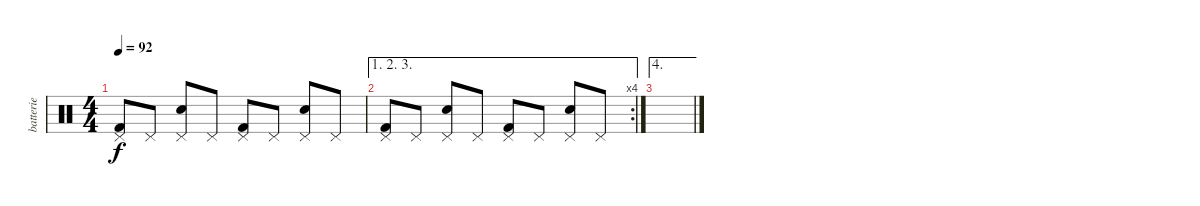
\track ("batterie" "batterie") {instrument percussion}
\staff {score}
\articulation defaults
\ts (4 4)
\tempo 92
\clef neutral
\ks c
("Pedal Hi-Hat (hit)" "Kick (hit) 2").8{dy f} "Pedal Hi-Hat (hit)".8 ("Pedal Hi-Hat (hit)" "Snare (hit) 2").8 "Pedal Hi-Hat (hit)".8 ("Pedal Hi-Hat (hit)" "Kick (hit) 2").8 "Pedal Hi-Hat (hit)".8 ("Pedal Hi-Hat (hit)" "Snare (hit) 2").8 "Pedal Hi-Hat (hit)".8 |
\ae (1 2 3)
\rc 4
("Pedal Hi-Hat (hit)" "Kick (hit) 2").8 "Pedal Hi-Hat (hit)".8 ("Pedal Hi-Hat (hit)" "Snare (hit) 2").8 "Pedal Hi-Hat (hit)".8 ("Pedal Hi-Hat (hit)" "Kick (hit) 2").8 "Pedal Hi-Hat (hit)".8 ("Pedal Hi-Hat (hit)" "Snare (hit) 2").8 "Pedal Hi-Hat (hit)".8 |
\ae 4
